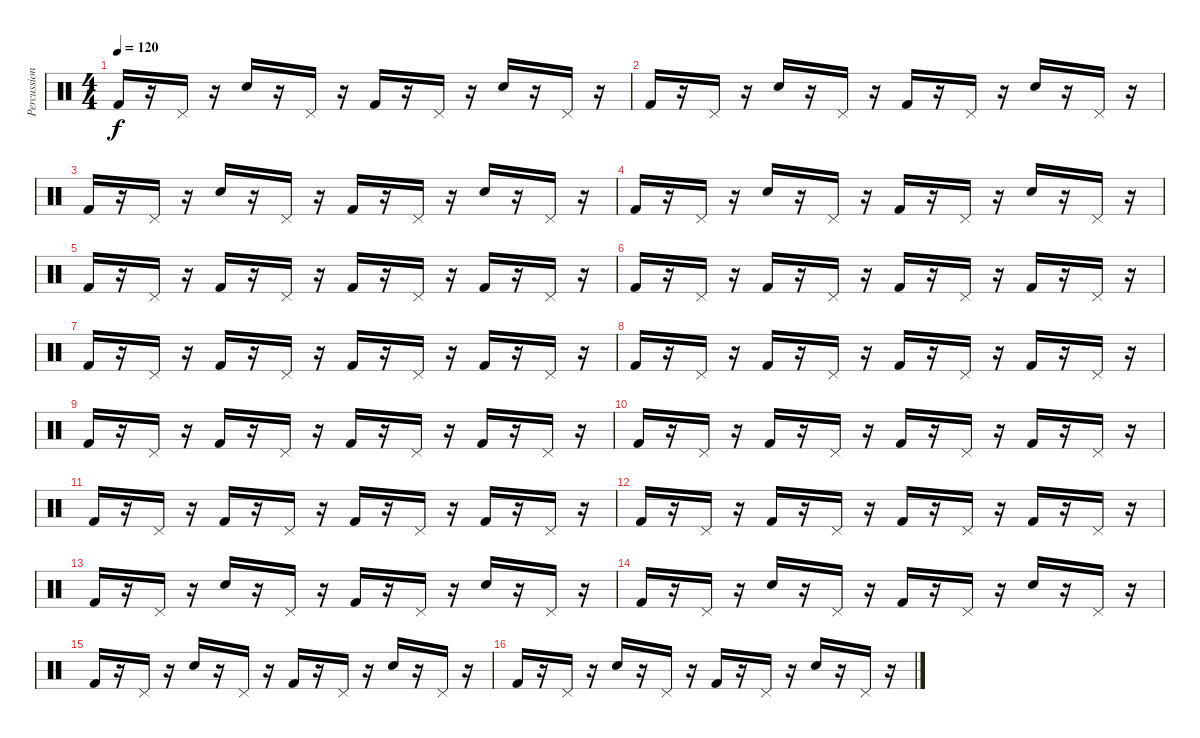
\track ("Percussion" "Percussion") {instrument percussion}
\staff {score}
\articulation defaults
\ts (4 4)
\tempo 120
\clef neutral
\ks c "Kick (hit) 2".16{dy f}
r.16 "Pedal Hi-Hat (hit)".16 r.16 "Electric Snare (hit)".16 r.16 "Pedal Hi-Hat (hit)".16 r.16 "Kick (hit) 2".16 r.16 "Pedal Hi-Hat (hit)".16 r.16 "Electric Snare (hit)".16 r.16 "Pedal Hi-Hat (hit)".16 r.16 |
"Kick (hit) 2".16 r.16 "Pedal Hi-Hat (hit)".16 r.16 "Electric Snare (hit)".16 r.16 "Pedal Hi-Hat (hit)".16 r.16 "Kick (hit) 2".16 r.16 "Pedal Hi-Hat (hit)".16 r.16 "Electric Snare (hit)".16 r.16 "Pedal Hi-Hat (hit)".16 r.16 |
"Kick (hit) 2".16 r.16 "Pedal Hi-Hat (hit)".16 r.16 "Electric Snare (hit)".16 r.16 "Pedal Hi-Hat (hit)".16 r.16 "Kick (hit) 2".16 r.16 "Pedal Hi-Hat (hit)".16 r.16 "Electric Snare (hit)".16 r.16 "Pedal Hi-Hat (hit)".16 r.16 |
"Kick (hit) 2".16 r.16 "Pedal Hi-Hat (hit)".16 r.16 "Electric Snare (hit)".16 r.16 "Pedal Hi-Hat (hit)".16 r.16 "Kick (hit) 2".16 r.16 "Pedal Hi-Hat (hit)".16 r.16 "Electric Snare (hit)".16 r.16 "Pedal Hi-Hat (hit)".16 r.16 |
"Kick (hit) 2".16 r.16 "Pedal Hi-Hat (hit)".16 r.16 "Kick (hit) 2".16 r.16 "Pedal Hi-Hat (hit)".16 r.16 "Kick (hit) 2".16 r.16 "Pedal Hi-Hat (hit)".16 r.16 "Kick (hit) 2".16 r.16 "Pedal Hi-Hat (hit)".16 r.16 |
"Kick (hit) 2".16 r.16 "Pedal Hi-Hat (hit)".16 r.16 "Kick (hit) 2".16 r.16 "Pedal Hi-Hat (hit)".16 r.16 "Kick (hit) 2".16 r.16 "Pedal Hi-Hat (hit)".16 r.16 "Kick (hit) 2".16 r.16 "Pedal Hi-Hat (hit)".16 r.16 |
"Kick (hit) 2".16 r.16 "Pedal Hi-Hat (hit)".16 r.16 "Kick (hit) 2".16 r.16 "Pedal Hi-Hat (hit)".16 r.16 "Kick (hit) 2".16 r.16 "Pedal Hi-Hat (hit)".16 r.16 "Kick (hit) 2".16 r.16 "Pedal Hi-Hat (hit)".16 r.16 |
"Kick (hit) 2".16 r.16 "Pedal Hi-Hat (hit)".16 r.16 "Kick (hit) 2".16 r.16 "Pedal Hi-Hat (hit)".16 r.16 "Kick (hit) 2".16 r.16 "Pedal Hi-Hat (hit)".16 r.16 "Kick (hit) 2".16 r.16 "Pedal Hi-Hat (hit)".16 r.16 |
"Kick (hit) 2".16 r.16 "Pedal Hi-Hat (hit)".16 r.16 "Kick (hit) 2".16 r.16 "Pedal Hi-Hat (hit)".16 r.16 "Kick (hit) 2".16 r.16 "Pedal Hi-Hat (hit)".16 r.16 "Kick (hit) 2".16 r.16 "Pedal Hi-Hat (hit)".16 r.16 |
"Kick (hit) 2".16 r.16 "Pedal Hi-Hat (hit)".16 r.16 "Kick (hit) 2".16 r.16 "Pedal Hi-Hat (hit)".16 r.16 "Kick (hit) 2".16 r.16 "Pedal Hi-Hat (hit)".16 r.16 "Kick (hit) 2".16 r.16 "Pedal Hi-Hat (hit)".16 r.16 |
"Kick (hit) 2".16 r.16 "Pedal Hi-Hat (hit)".16 r.16 "Kick (hit) 2".16 r.16 "Pedal Hi-Hat (hit)".16 r.16 "Kick (hit) 2".16 r.16 "Pedal Hi-Hat (hit)".16 r.16 "Kick (hit) 2".16 r.16 "Pedal Hi-Hat (hit)".16 r.16 |
"Kick (hit) 2".16 r.16 "Pedal Hi-Hat (hit)".16 r.16 "Kick (hit) 2".16 r.16 "Pedal Hi-Hat (hit)".16 r.16 "Kick (hit) 2".16 r.16 "Pedal Hi-Hat (hit)".16 r.16 "Kick (hit) 2".16 r.16 "Pedal Hi-Hat (hit)".16 r.16 |
"Kick (hit) 2".16 r.16 "Pedal Hi-Hat (hit)".16 r.16 "Electric Snare (hit)".16 r.16 "Pedal Hi-Hat (hit)".16 r.16 "Kick (hit) 2".16 r.16 "Pedal Hi-Hat (hit)".16 r.16 "Electric Snare (hit)".16 r.16 "Pedal Hi-Hat (hit)".16 r.16 |
"Kick (hit) 2".16 r.16 "Pedal Hi-Hat (hit)".16 r.16 "Electric Snare (hit)".16 r.16 "Pedal Hi-Hat (hit)".16 r.16 "Kick (hit) 2".16 r.16 "Pedal Hi-Hat (hit)".16 r.16 "Electric Snare (hit)".16 r.16 "Pedal Hi-Hat (hit)".16 r.16 |
"Kick (hit) 2".16 r.16 "Pedal Hi-Hat (hit)".16 r.16 "Electric Snare (hit)".16 r.16 "Pedal Hi-Hat (hit)".16 r.16 "Kick (hit) 2".16 r.16 "Pedal Hi-Hat (hit)".16 r.16 "Electric Snare (hit)".16 r.16 "Pedal Hi-Hat (hit)".16 r.16 |
"Kick (hit) 2".16 r.16 "Pedal Hi-Hat (hit)".16 r.16 "Electric Snare (hit)".16 r.16 "Pedal Hi-Hat (hit)".16 r.16 "Kick (hit) 2".16 r.16 "Pedal Hi-Hat (hit)".16 r.16 "Electric Snare (hit)".16 r.16 "Pedal Hi-Hat (hit)".16 r.16
